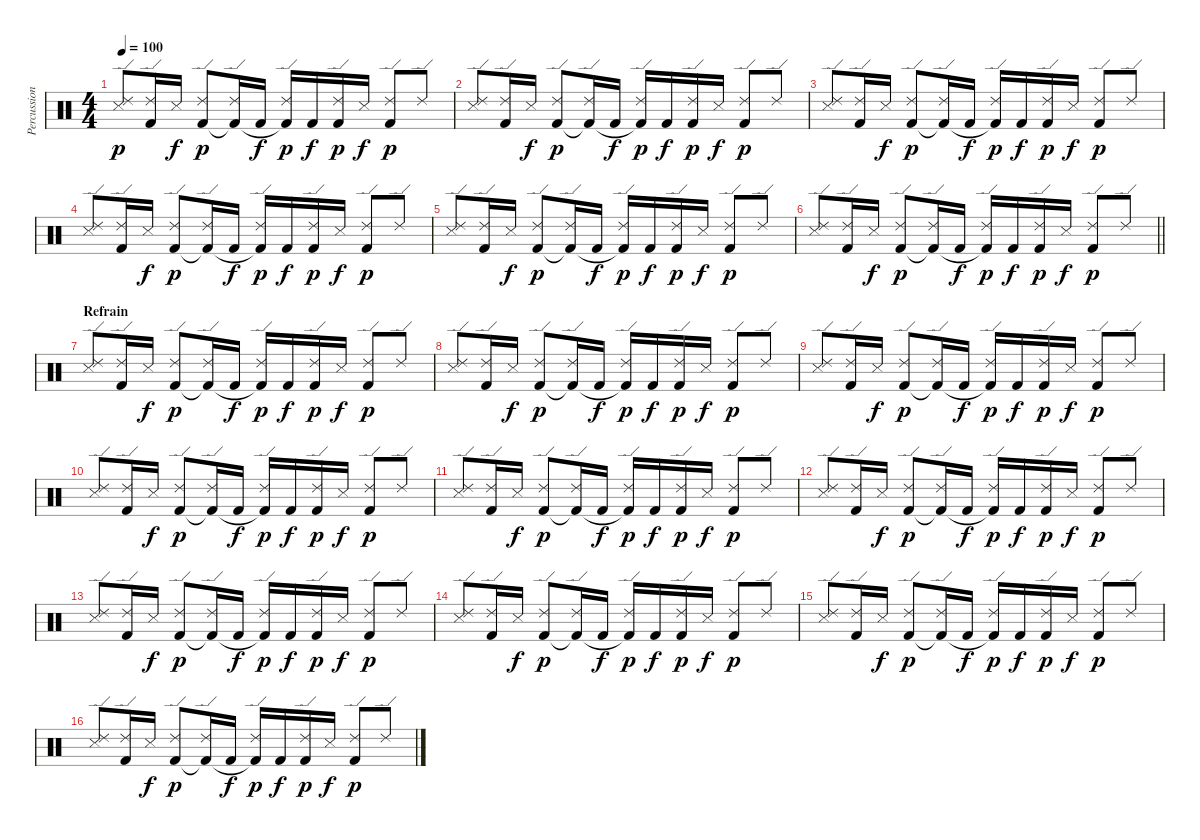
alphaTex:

\track ("Percussion" "Percussion") {instrument percussion}
\staff {score}
\articulation defaults
\ts (4 4)
\tempo 100
\clef neutral
\ks c
("Ride (edge) 2" "Snare (side stick) 3").8{dy p} ("Ride (edge) 2" "Kick (hit) 2").16 "Snare (side stick) 3".16{dy f} ("Ride (edge) 2" "Kick (hit) 2").8{dy p} ("Ride (edge) 2" "Kick (hit) 2"{t}).16 "Kick (hit) 2".16{dy f} ("Ride (edge) 2" "Kick (hit) 2"{t}).16{dy p} "Kick (hit) 2".16{dy f} ("Ride (edge) 2" "Kick (hit) 2").16{dy p} "Snare (side stick) 3".16{dy f} ("Ride (edge) 2" "Kick (hit) 2").8{dy p} "Ride (edge) 2".8 |
("Ride (edge) 2" "Snare (side stick) 3").8 ("Ride (edge) 2" "Kick (hit) 2").16 "Snare (side stick) 3".16{dy f} ("Ride (edge) 2" "Kick (hit) 2").8{dy p} ("Ride (edge) 2" "Kick (hit) 2"{t}).16 "Kick (hit) 2".16{dy f} ("Ride (edge) 2" "Kick (hit) 2"{t}).16{dy p} "Kick (hit) 2".16{dy f} ("Ride (edge) 2" "Kick (hit) 2").16{dy p} "Snare (side stick) 3".16{dy f} ("Ride (edge) 2" "Kick (hit) 2").8{dy p} "Ride (edge) 2".8 |
("Ride (edge) 2" "Snare (side stick) 3").8 ("Ride (edge) 2" "Kick (hit) 2").16 "Snare (side stick) 3".16{dy f} ("Ride (edge) 2" "Kick (hit) 2").8{dy p} ("Ride (edge) 2" "Kick (hit) 2"{t}).16 "Kick (hit) 2".16{dy f} ("Ride (edge) 2" "Kick (hit) 2"{t}).16{dy p} "Kick (hit) 2".16{dy f} ("Ride (edge) 2" "Kick (hit) 2").16{dy p} "Snare (side stick) 3".16{dy f} ("Ride (edge) 2" "Kick (hit) 2").8{dy p} "Ride (edge) 2".8 |
("Ride (edge) 2" "Snare (side stick) 3").8 ("Ride (edge) 2" "Kick (hit) 2").16 "Snare (side stick) 3".16{dy f} ("Ride (edge) 2" "Kick (hit) 2").8{dy p} ("Ride (edge) 2" "Kick (hit) 2"{t}).16 "Kick (hit) 2".16{dy f} ("Ride (edge) 2" "Kick (hit) 2"{t}).16{dy p} "Kick (hit) 2".16{dy f} ("Ride (edge) 2" "Kick (hit) 2").16{dy p} "Snare (side stick) 3".16{dy f} ("Ride (edge) 2" "Kick (hit) 2").8{dy p} "Ride (edge) 2".8 |
("Ride (edge) 2" "Snare (side stick) 3").8 ("Ride (edge) 2" "Kick (hit) 2").16 "Snare (side stick) 3".16{dy f} ("Ride (edge) 2" "Kick (hit) 2").8{dy p} ("Ride (edge) 2" "Kick (hit) 2"{t}).16 "Kick (hit) 2".16{dy f} ("Ride (edge) 2" "Kick (hit) 2"{t}).16{dy p} "Kick (hit) 2".16{dy f} ("Ride (edge) 2" "Kick (hit) 2").16{dy p} "Snare (side stick) 3".16{dy f} ("Ride (edge) 2" "Kick (hit) 2").8{dy p} "Ride (edge) 2".8 |
\barLineRight lightlight
("Ride (edge) 2" "Snare (side stick) 3").8 ("Ride (edge) 2" "Kick (hit) 2").16 "Snare (side stick) 3".16{dy f} ("Ride (edge) 2" "Kick (hit) 2").8{dy p} ("Ride (edge) 2" "Kick (hit) 2"{t}).16 "Kick (hit) 2".16{dy f} ("Ride (edge) 2" "Kick (hit) 2"{t}).16{dy p} "Kick (hit) 2".16{dy f} ("Ride (edge) 2" "Kick (hit) 2").16{dy p} "Snare (side stick) 3".16{dy f} ("Ride (edge) 2" "Kick (hit) 2").8{dy p} "Ride (edge) 2".8 |
\section ("" "Refrain")
("Ride (edge) 2" "Snare (side stick) 3").8 ("Ride (edge) 2" "Kick (hit) 2").16 "Snare (side stick) 3".16{dy f} ("Ride (edge) 2" "Kick (hit) 2").8{dy p} ("Ride (edge) 2" "Kick (hit) 2"{t}).16 "Kick (hit) 2".16{dy f} ("Ride (edge) 2" "Kick (hit) 2"{t}).16{dy p} "Kick (hit) 2".16{dy f} ("Ride (edge) 2" "Kick (hit) 2").16{dy p} "Snare (side stick) 3".16{dy f} ("Ride (edge) 2" "Kick (hit) 2").8{dy p} "Ride (edge) 2".8 |
("Ride (edge) 2" "Snare (side stick) 3").8 ("Ride (edge) 2" "Kick (hit) 2").16 "Snare (side stick) 3".16{dy f} ("Ride (edge) 2" "Kick (hit) 2").8{dy p} ("Ride (edge) 2" "Kick (hit) 2"{t}).16 "Kick (hit) 2".16{dy f} ("Ride (edge) 2" "Kick (hit) 2"{t}).16{dy p} "Kick (hit) 2".16{dy f} ("Ride (edge) 2" "Kick (hit) 2").16{dy p} "Snare (side stick) 3".16{dy f} ("Ride (edge) 2" "Kick (hit) 2").8{dy p} "Ride (edge) 2".8 |
("Ride (edge) 2" "Snare (side stick) 3").8 ("Ride (edge) 2" "Kick (hit) 2").16 "Snare (side stick) 3".16{dy f} ("Ride (edge) 2" "Kick (hit) 2").8{dy p} ("Ride (edge) 2" "Kick (hit) 2"{t}).16 "Kick (hit) 2".16{dy f} ("Ride (edge) 2" "Kick (hit) 2"{t}).16{dy p} "Kick (hit) 2".16{dy f} ("Ride (edge) 2" "Kick (hit) 2").16{dy p} "Snare (side stick) 3".16{dy f} ("Ride (edge) 2" "Kick (hit) 2").8{dy p} "Ride (edge) 2".8 |
("Ride (edge) 2" "Snare (side stick) 3").8 ("Ride (edge) 2" "Kick (hit) 2").16 "Snare (side stick) 3".16{dy f} ("Ride (edge) 2" "Kick (hit) 2").8{dy p} ("Ride (edge) 2" "Kick (hit) 2"{t}).16 "Kick (hit) 2".16{dy f} ("Ride (edge) 2" "Kick (hit) 2"{t}).16{dy p} "Kick (hit) 2".16{dy f} ("Ride (edge) 2" "Kick (hit) 2").16{dy p} "Snare (side stick) 3".16{dy f} ("Ride (edge) 2" "Kick (hit) 2").8{dy p} "Ride (edge) 2".8 |
("Ride (edge) 2" "Snare (side stick) 3").8 ("Ride (edge) 2" "Kick (hit) 2").16 "Snare (side stick) 3".16{dy f} ("Ride (edge) 2" "Kick (hit) 2").8{dy p} ("Ride (edge) 2" "Kick (hit) 2"{t}).16 "Kick (hit) 2".16{dy f} ("Ride (edge) 2" "Kick (hit) 2"{t}).16{dy p} "Kick (hit) 2".16{dy f} ("Ride (edge) 2" "Kick (hit) 2").16{dy p} "Snare (side stick) 3".16{dy f} ("Ride (edge) 2" "Kick (hit) 2").8{dy p} "Ride (edge) 2".8 |
("Ride (edge) 2" "Snare (side stick) 3").8 ("Ride (edge) 2" "Kick (hit) 2").16 "Snare (side stick) 3".16{dy f} ("Ride (edge) 2" "Kick (hit) 2").8{dy p} ("Ride (edge) 2" "Kick (hit) 2"{t}).16 "Kick (hit) 2".16{dy f} ("Ride (edge) 2" "Kick (hit) 2"{t}).16{dy p} "Kick (hit) 2".16{dy f} ("Ride (edge) 2" "Kick (hit) 2").16{dy p} "Snare (side stick) 3".16{dy f} ("Ride (edge) 2" "Kick (hit) 2").8{dy p} "Ride (edge) 2".8 |
("Ride (edge) 2" "Snare (side stick) 3").8 ("Ride (edge) 2" "Kick (hit) 2").16 "Snare (side stick) 3".16{dy f} ("Ride (edge) 2" "Kick (hit) 2").8{dy p} ("Ride (edge) 2" "Kick (hit) 2"{t}).16 "Kick (hit) 2".16{dy f} ("Ride (edge) 2" "Kick (hit) 2"{t}).16{dy p} "Kick (hit) 2".16{dy f} ("Ride (edge) 2" "Kick (hit) 2").16{dy p} "Snare (side stick) 3".16{dy f} ("Ride (edge) 2" "Kick (hit) 2").8{dy p} "Ride (edge) 2".8 |
("Ride (edge) 2" "Snare (side stick) 3").8 ("Ride (edge) 2" "Kick (hit) 2").16 "Snare (side stick) 3".16{dy f} ("Ride (edge) 2" "Kick (hit) 2").8{dy p} ("Ride (edge) 2" "Kick (hit) 2"{t}).16 "Kick (hit) 2".16{dy f} ("Ride (edge) 2" "Kick (hit) 2"{t}).16{dy p} "Kick (hit) 2".16{dy f} ("Ride (edge) 2" "Kick (hit) 2").16{dy p} "Snare (side stick) 3".16{dy f} ("Ride (edge) 2" "Kick (hit) 2").8{dy p} "Ride (edge) 2".8 |
("Ride (edge) 2" "Snare (side stick) 3").8 ("Ride (edge) 2" "Kick (hit) 2").16 "Snare (side stick) 3".16{dy f} ("Ride (edge) 2" "Kick (hit) 2").8{dy p} ("Ride (edge) 2" "Kick (hit) 2"{t}).16 "Kick (hit) 2".16{dy f} ("Ride (edge) 2" "Kick (hit) 2"{t}).16{dy p} "Kick (hit) 2".16{dy f} ("Ride (edge) 2" "Kick (hit) 2").16{dy p} "Snare (side stick) 3".16{dy f} ("Ride (edge) 2" "Kick (hit) 2").8{dy p} "Ride (edge) 2".8 |
("Ride (edge) 2" "Snare (side stick) 3").8 ("Ride (edge) 2" "Kick (hit) 2").16 "Snare (side stick) 3".16{dy f} ("Ride (edge) 2" "Kick (hit) 2").8{dy p} ("Ride (edge) 2" "Kick (hit) 2"{t}).16 "Kick (hit) 2".16{dy f} ("Ride (edge) 2" "Kick (hit) 2"{t}).16{dy p} "Kick (hit) 2".16{dy f} ("Ride (edge) 2" "Kick (hit) 2").16{dy p} "Snare (side stick) 3".16{dy f} ("Ride (edge) 2" "Kick (hit) 2").8{dy p} "Ride (edge) 2".8
